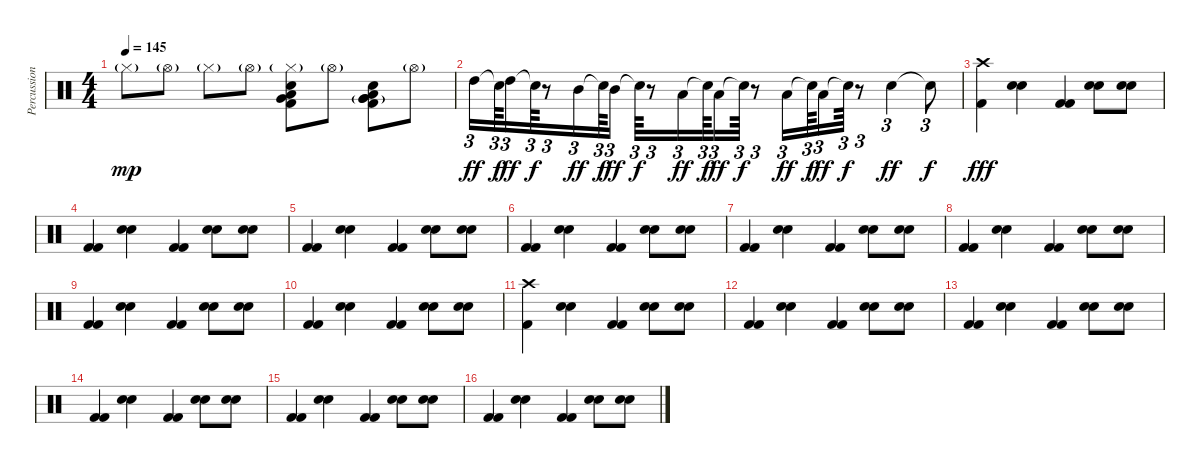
\track ("Percussion ( Keyboard )" "Percussion") {instrument percussion bank 4}
\staff {score}
\articulation defaults
\ts (4 4)
\tempo 145
\clef neutral
\ks c "Hi-Hat (closed)"{g}.8{dy mp} "Hi-Hat (open)"{g}.8 "Hi-Hat (closed)"{g}.8 "Hi-Hat (open)"{g}.8
("Kick (hit) 2" "Very Low Tom (hit)" "Hi-Hat (closed)"{g} "Electric Snare (hit)" "Low Floor Tom (hit)").8 "Hi-Hat (open)"{g}.8 ("Very Low Tom (hit)" "Kick (hit) 2" "Very Low Tom (hit)"{g} "Electric Snare (hit)" "Low Floor Tom (hit)").8 "Hi-Hat (open)"{g}.8 |
"High Tom (hit)".16{tu (3 2) dy ff} "Snare (hit)"{t}.64{tu (3 2) dy f} "High Tom (hit)".16{tu (3 2) dy ff} "Snare (hit)"{t}.64{tu (3 2) dy f} r.8{tu (3 2)} "Mid Tom (hit)".16{tu (3 2) dy ff} "Snare (hit)"{t}.64{tu (3 2) dy f} "Mid Tom (hit)".16{tu (3 2) dy ff} "Snare (hit)"{t}.64{tu (3 2) dy f} r.8{tu (3 2)} "Low Tom (hit)".16{tu (3 2) dy ff} "Snare (hit)"{t}.64{tu (3 2) dy f} "Low Tom (hit)".16{tu (3 2) dy ff} "Snare (hit)"{t}.64{tu (3 2) dy f} r.8{tu (3 2)} "Low Floor Tom (hit)".16{tu (3 2) dy ff} "Snare (hit)"{t}.64{tu (3 2) dy f} "Low Floor Tom (hit)".16{tu (3 2) dy ff} "Snare (hit)"{t}.64{tu (3 2) dy f} r.8{tu (3 2)} "Hand Clap (hit)".4{tu (3 2) dy ff} "Snare (hit)"{t}.8{tu (3 2) dy f} |
("Crash high (hit)" "Kick (hit) 2").4{dy fff} ("Electric Snare (hit)" "Hand Clap (hit)").4 ("Kick (hit) 2" "Kick (hit) 2").4 ("Electric Snare (hit)" "Hand Clap (hit)").8 ("Electric Snare (hit)" "Hand Clap (hit)").8 |
("Kick (hit) 2" "Kick (hit) 2").4 ("Electric Snare (hit)" "Hand Clap (hit)").4 ("Kick (hit) 2" "Kick (hit) 2").4 ("Electric Snare (hit)" "Hand Clap (hit)").8 ("Electric Snare (hit)" "Hand Clap (hit)").8 |
("Kick (hit) 2" "Kick (hit) 2").4 ("Electric Snare (hit)" "Hand Clap (hit)").4 ("Kick (hit) 2" "Kick (hit) 2").4 ("Electric Snare (hit)" "Hand Clap (hit)").8 ("Electric Snare (hit)" "Hand Clap (hit)").8 |
("Kick (hit) 2" "Kick (hit) 2").4 ("Electric Snare (hit)" "Hand Clap (hit)").4 ("Kick (hit) 2" "Kick (hit) 2").4 ("Electric Snare (hit)" "Hand Clap (hit)").8 ("Electric Snare (hit)" "Hand Clap (hit)").8 |
("Kick (hit) 2" "Kick (hit) 2").4 ("Electric Snare (hit)" "Hand Clap (hit)").4 ("Kick (hit) 2" "Kick (hit) 2").4 ("Electric Snare (hit)" "Hand Clap (hit)").8 ("Electric Snare (hit)" "Hand Clap (hit)").8 |
("Kick (hit) 2" "Kick (hit) 2").4 ("Electric Snare (hit)" "Hand Clap (hit)").4 ("Kick (hit) 2" "Kick (hit) 2").4 ("Electric Snare (hit)" "Hand Clap (hit)").8 ("Electric Snare (hit)" "Hand Clap (hit)").8 |
("Kick (hit) 2" "Kick (hit) 2").4 ("Electric Snare (hit)" "Hand Clap (hit)").4 ("Kick (hit) 2" "Kick (hit) 2").4 ("Electric Snare (hit)" "Hand Clap (hit)").8 ("Electric Snare (hit)" "Hand Clap (hit)").8 |
("Kick (hit) 2" "Kick (hit) 2").4 ("Electric Snare (hit)" "Hand Clap (hit)").4 ("Kick (hit) 2" "Kick (hit) 2").4 ("Electric Snare (hit)" "Hand Clap (hit)").8 ("Electric Snare (hit)" "Hand Clap (hit)").8 |
("Crash high (hit)" "Kick (hit) 2").4 ("Electric Snare (hit)" "Hand Clap (hit)").4 ("Kick (hit) 2" "Kick (hit) 2").4 ("Electric Snare (hit)" "Hand Clap (hit)").8 ("Electric Snare (hit)" "Hand Clap (hit)").8 |
("Kick (hit) 2" "Kick (hit) 2").4 ("Electric Snare (hit)" "Hand Clap (hit)").4 ("Kick (hit) 2" "Kick (hit) 2").4 ("Electric Snare (hit)" "Hand Clap (hit)").8 ("Electric Snare (hit)" "Hand Clap (hit)").8 |
("Kick (hit) 2" "Kick (hit) 2").4 ("Electric Snare (hit)" "Hand Clap (hit)").4 ("Kick (hit) 2" "Kick (hit) 2").4 ("Electric Snare (hit)" "Hand Clap (hit)").8 ("Electric Snare (hit)" "Hand Clap (hit)").8 |
("Kick (hit) 2" "Kick (hit) 2").4 ("Electric Snare (hit)" "Hand Clap (hit)").4 ("Kick (hit) 2" "Kick (hit) 2").4 ("Electric Snare (hit)" "Hand Clap (hit)").8 ("Electric Snare (hit)" "Hand Clap (hit)").8 |
("Kick (hit) 2" "Kick (hit) 2").4 ("Electric Snare (hit)" "Hand Clap (hit)").4 ("Kick (hit) 2" "Kick (hit) 2").4 ("Electric Snare (hit)" "Hand Clap (hit)").8 ("Electric Snare (hit)" "Hand Clap (hit)").8 |
("Kick (hit) 2" "Kick (hit) 2").4 ("Electric Snare (hit)" "Hand Clap (hit)").4 ("Kick (hit) 2" "Kick (hit) 2").4 ("Electric Snare (hit)" "Hand Clap (hit)").8 ("Electric Snare (hit)" "Hand Clap (hit)").8
